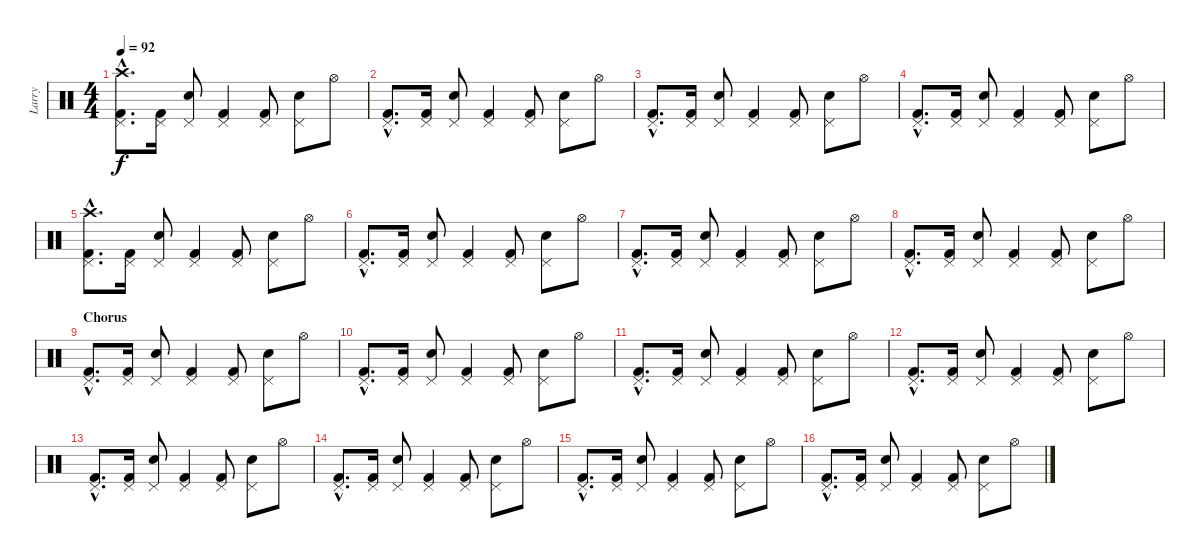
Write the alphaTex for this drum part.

\track ("Larry" "Larry") {instrument percussion}
\staff {score}
\articulation defaults
\ts (4 4)
\tempo 92
\clef neutral
\ks c
("Crash high (hit)"{hac} "Pedal Hi-Hat (hit)"{hac} "Kick (hit) 2"{hac}).8{d dy f} ("Pedal Hi-Hat (hit)" "Kick (hit) 2").16 ("Pedal Hi-Hat (hit)" "Snare (hit) 2").8 ("Pedal Hi-Hat (hit)" "Kick (hit) 2").4 ("Pedal Hi-Hat (hit)" "Kick (hit) 2").8 ("Pedal Hi-Hat (hit)" "Snare (hit) 2").8 "Hi-Hat (open)".8 |
("Pedal Hi-Hat (hit)"{hac} "Kick (hit) 2"{hac}).8{d} ("Pedal Hi-Hat (hit)" "Kick (hit) 2").16 ("Pedal Hi-Hat (hit)" "Snare (hit) 2").8 ("Pedal Hi-Hat (hit)" "Kick (hit) 2").4 ("Pedal Hi-Hat (hit)" "Kick (hit) 2").8 ("Pedal Hi-Hat (hit)" "Snare (hit) 2").8 "Hi-Hat (open)".8 |
("Pedal Hi-Hat (hit)"{hac} "Kick (hit) 2"{hac}).8{d} ("Pedal Hi-Hat (hit)" "Kick (hit) 2").16 ("Pedal Hi-Hat (hit)" "Snare (hit) 2").8 ("Pedal Hi-Hat (hit)" "Kick (hit) 2").4 ("Pedal Hi-Hat (hit)" "Kick (hit) 2").8 ("Pedal Hi-Hat (hit)" "Snare (hit) 2").8 "Hi-Hat (open)".8 |
("Pedal Hi-Hat (hit)"{hac} "Kick (hit) 2"{hac}).8{d} ("Pedal Hi-Hat (hit)" "Kick (hit) 2").16 ("Pedal Hi-Hat (hit)" "Snare (hit) 2").8 ("Pedal Hi-Hat (hit)" "Kick (hit) 2").4 ("Pedal Hi-Hat (hit)" "Kick (hit) 2").8 ("Pedal Hi-Hat (hit)" "Snare (hit) 2").8 "Hi-Hat (open)".8 |
("Crash high (hit)"{hac} "Pedal Hi-Hat (hit)"{hac} "Kick (hit) 2"{hac}).8{d} ("Pedal Hi-Hat (hit)" "Kick (hit) 2").16 ("Pedal Hi-Hat (hit)" "Snare (hit) 2").8 ("Pedal Hi-Hat (hit)" "Kick (hit) 2").4 ("Pedal Hi-Hat (hit)" "Kick (hit) 2").8 ("Pedal Hi-Hat (hit)" "Snare (hit) 2").8 "Hi-Hat (open)".8 |
("Pedal Hi-Hat (hit)"{hac} "Kick (hit) 2"{hac}).8{d} ("Pedal Hi-Hat (hit)" "Kick (hit) 2").16 ("Pedal Hi-Hat (hit)" "Snare (hit) 2").8 ("Pedal Hi-Hat (hit)" "Kick (hit) 2").4 ("Pedal Hi-Hat (hit)" "Kick (hit) 2").8 ("Pedal Hi-Hat (hit)" "Snare (hit) 2").8 "Hi-Hat (open)".8 |
("Pedal Hi-Hat (hit)"{hac} "Kick (hit) 2"{hac}).8{d} ("Pedal Hi-Hat (hit)" "Kick (hit) 2").16 ("Pedal Hi-Hat (hit)" "Snare (hit) 2").8 ("Pedal Hi-Hat (hit)" "Kick (hit) 2").4 ("Pedal Hi-Hat (hit)" "Kick (hit) 2").8 ("Pedal Hi-Hat (hit)" "Snare (hit) 2").8 "Hi-Hat (open)".8 |
("Pedal Hi-Hat (hit)"{hac} "Kick (hit) 2"{hac}).8{d} ("Pedal Hi-Hat (hit)" "Kick (hit) 2").16 ("Pedal Hi-Hat (hit)" "Snare (hit) 2").8 ("Pedal Hi-Hat (hit)" "Kick (hit) 2").4 ("Pedal Hi-Hat (hit)" "Kick (hit) 2").8 ("Pedal Hi-Hat (hit)" "Snare (hit) 2").8 "Hi-Hat (open)".8 |
\section ("" "Chorus")
("Pedal Hi-Hat (hit)"{hac} "Kick (hit) 2"{hac}).8{d} ("Pedal Hi-Hat (hit)" "Kick (hit) 2").16 ("Pedal Hi-Hat (hit)" "Snare (hit) 2").8 ("Pedal Hi-Hat (hit)" "Kick (hit) 2").4 ("Pedal Hi-Hat (hit)" "Kick (hit) 2").8 ("Pedal Hi-Hat (hit)" "Snare (hit) 2").8 "Hi-Hat (open)".8 |
("Pedal Hi-Hat (hit)"{hac} "Kick (hit) 2"{hac}).8{d} ("Pedal Hi-Hat (hit)" "Kick (hit) 2").16 ("Pedal Hi-Hat (hit)" "Snare (hit) 2").8 ("Pedal Hi-Hat (hit)" "Kick (hit) 2").4 ("Pedal Hi-Hat (hit)" "Kick (hit) 2").8 ("Pedal Hi-Hat (hit)" "Snare (hit) 2").8 "Hi-Hat (open)".8 |
("Pedal Hi-Hat (hit)"{hac} "Kick (hit) 2"{hac}).8{d} ("Pedal Hi-Hat (hit)" "Kick (hit) 2").16 ("Pedal Hi-Hat (hit)" "Snare (hit) 2").8 ("Pedal Hi-Hat (hit)" "Kick (hit) 2").4 ("Pedal Hi-Hat (hit)" "Kick (hit) 2").8 ("Pedal Hi-Hat (hit)" "Snare (hit) 2").8 "Hi-Hat (open)".8 |
("Pedal Hi-Hat (hit)"{hac} "Kick (hit) 2"{hac}).8{d} ("Pedal Hi-Hat (hit)" "Kick (hit) 2").16 ("Pedal Hi-Hat (hit)" "Snare (hit) 2").8 ("Pedal Hi-Hat (hit)" "Kick (hit) 2").4 ("Pedal Hi-Hat (hit)" "Kick (hit) 2").8 ("Pedal Hi-Hat (hit)" "Snare (hit) 2").8 "Hi-Hat (open)".8 |
("Pedal Hi-Hat (hit)"{hac} "Kick (hit) 2"{hac}).8{d} ("Pedal Hi-Hat (hit)" "Kick (hit) 2").16 ("Pedal Hi-Hat (hit)" "Snare (hit) 2").8 ("Pedal Hi-Hat (hit)" "Kick (hit) 2").4 ("Pedal Hi-Hat (hit)" "Kick (hit) 2").8 ("Pedal Hi-Hat (hit)" "Snare (hit) 2").8 "Hi-Hat (open)".8 |
("Pedal Hi-Hat (hit)"{hac} "Kick (hit) 2"{hac}).8{d} ("Pedal Hi-Hat (hit)" "Kick (hit) 2").16 ("Pedal Hi-Hat (hit)" "Snare (hit) 2").8 ("Pedal Hi-Hat (hit)" "Kick (hit) 2").4 ("Pedal Hi-Hat (hit)" "Kick (hit) 2").8 ("Pedal Hi-Hat (hit)" "Snare (hit) 2").8 "Hi-Hat (open)".8 |
("Pedal Hi-Hat (hit)"{hac} "Kick (hit) 2"{hac}).8{d} ("Pedal Hi-Hat (hit)" "Kick (hit) 2").16 ("Pedal Hi-Hat (hit)" "Snare (hit) 2").8 ("Pedal Hi-Hat (hit)" "Kick (hit) 2").4 ("Pedal Hi-Hat (hit)" "Kick (hit) 2").8 ("Pedal Hi-Hat (hit)" "Snare (hit) 2").8 "Hi-Hat (open)".8 |
("Pedal Hi-Hat (hit)"{hac} "Kick (hit) 2"{hac}).8{d} ("Pedal Hi-Hat (hit)" "Kick (hit) 2").16 ("Pedal Hi-Hat (hit)" "Snare (hit) 2").8 ("Pedal Hi-Hat (hit)" "Kick (hit) 2").4 ("Pedal Hi-Hat (hit)" "Kick (hit) 2").8 ("Pedal Hi-Hat (hit)" "Snare (hit) 2").8 "Hi-Hat (open)".8
